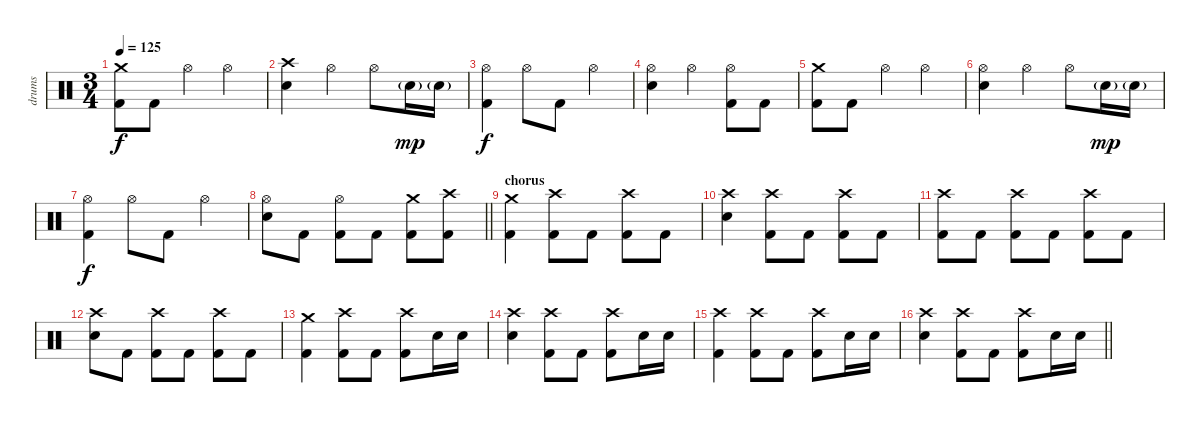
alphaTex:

\track ("drums" "drums") {instrument percussion}
\staff {score}
\articulation defaults
\ts (3 4)
\tempo 125
\clef neutral
\ks c
("Crash medium (hit)" "Kick (hit) 2").8{dy f} "Kick (hit) 2".8 "Hi-Hat (open)".4 "Hi-Hat (open)".4 |
("Crash high (hit)" "Electric Snare (hit)").4 "Hi-Hat (open)".4 "Hi-Hat (open)".8 "Electric Snare (hit)"{g}.16{dy mp} "Electric Snare (hit)"{g}.16 |
("Hi-Hat (open)" "Kick (hit) 2").4{dy f} "Hi-Hat (open)".8 "Kick (hit) 2".8 "Hi-Hat (open)".4 |
("Hi-Hat (open)" "Electric Snare (hit)").4 "Hi-Hat (open)".4 ("Hi-Hat (open)" "Kick (hit) 2").8 "Kick (hit) 2".8 |
("Crash medium (hit)" "Kick (hit) 2").8 "Kick (hit) 2".8 "Hi-Hat (open)".4 "Hi-Hat (open)".4 |
("Hi-Hat (open)" "Electric Snare (hit)").4 "Hi-Hat (open)".4 "Hi-Hat (open)".8 "Electric Snare (hit)"{g}.16{dy mp} "Electric Snare (hit)"{g}.16 |
("Hi-Hat (open)" "Kick (hit) 2").4{dy f} "Hi-Hat (open)".8 "Kick (hit) 2".8 "Hi-Hat (open)".4 |
\barLineRight lightlight
("Hi-Hat (open)" "Electric Snare (hit)").8 "Kick (hit) 2".8 ("Hi-Hat (open)" "Kick (hit) 2").8 "Kick (hit) 2".8 ("Crash medium (hit)" "Kick (hit) 2").8 ("Crash high (hit)" "Kick (hit) 2").8 |
\section ("" "chorus")
("Crash medium (hit)" "Kick (hit) 2").4 ("Crash high (hit)" "Kick (hit) 2").8 "Kick (hit) 2".8 ("Crash high (hit)" "Kick (hit) 2").8 "Kick (hit) 2".8 |
("Crash high (hit)" "Electric Snare (hit)").4 ("Crash high (hit)" "Kick (hit) 2").8 "Kick (hit) 2".8 ("Crash high (hit)" "Kick (hit) 2").8 "Kick (hit) 2".8 |
("Crash high (hit)" "Kick (hit) 2").8 "Kick (hit) 2".8 ("Crash high (hit)" "Kick (hit) 2").8 "Kick (hit) 2".8 ("Crash high (hit)" "Kick (hit) 2").8 "Kick (hit) 2".8 |
("Crash high (hit)" "Electric Snare (hit)").8 "Kick (hit) 2".8 ("Crash high (hit)" "Kick (hit) 2").8 "Kick (hit) 2".8 ("Crash high (hit)" "Kick (hit) 2").8 "Kick (hit) 2".8 |
("Crash medium (hit)" "Kick (hit) 2").4 ("Crash high (hit)" "Kick (hit) 2").8 "Kick (hit) 2".8 ("Crash high (hit)" "Kick (hit) 2").8 "Electric Snare (hit)".16 "Electric Snare (hit)".16 |
("Crash high (hit)" "Electric Snare (hit)").4 ("Crash high (hit)" "Kick (hit) 2").8 "Kick (hit) 2".8 ("Crash high (hit)" "Kick (hit) 2").8 "Electric Snare (hit)".16 "Electric Snare (hit)".16 |
("Crash high (hit)" "Kick (hit) 2").4 ("Crash high (hit)" "Kick (hit) 2").8 "Kick (hit) 2".8 ("Crash high (hit)" "Kick (hit) 2").8 "Electric Snare (hit)".16 "Electric Snare (hit)".16 |
\barLineRight lightlight
("Crash high (hit)" "Electric Snare (hit)").4 ("Crash high (hit)" "Kick (hit) 2").8 "Kick (hit) 2".8 ("Crash high (hit)" "Kick (hit) 2").8 "Electric Snare (hit)".16 "Electric Snare (hit)".16
